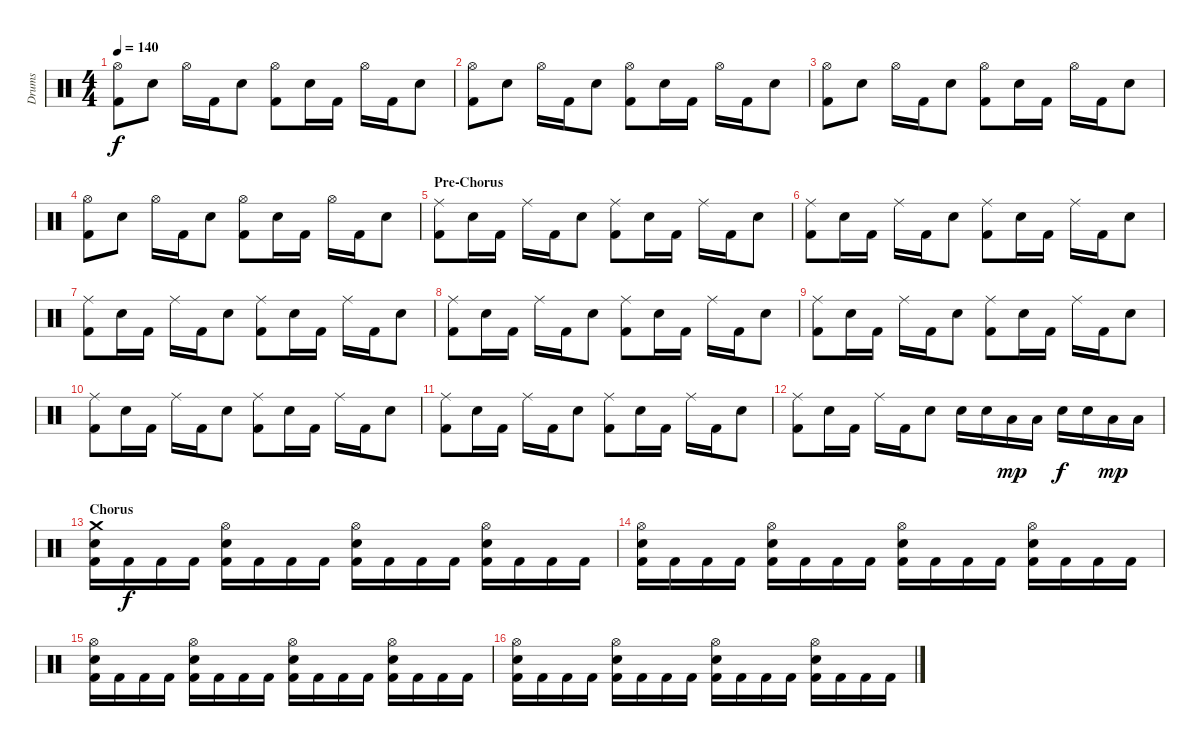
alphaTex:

\track ("Drums" "Drums") {instrument percussion}
\staff {score}
\articulation defaults
\ts (4 4)
\tempo 140
\clef neutral
\ks c
("Hi-Hat (open)" "Kick (hit) 2").8{dy f} "Electric Snare (hit)".8 "Hi-Hat (open)".16 "Kick (hit) 2".16 "Electric Snare (hit)".8 ("Hi-Hat (open)" "Kick (hit) 2").8 "Electric Snare (hit)".16 "Kick (hit) 2".16 "Hi-Hat (open)".16 "Kick (hit) 2".16 "Electric Snare (hit)".8 |
("Hi-Hat (open)" "Kick (hit) 2").8 "Electric Snare (hit)".8 "Hi-Hat (open)".16 "Kick (hit) 2".16 "Electric Snare (hit)".8 ("Hi-Hat (open)" "Kick (hit) 2").8 "Electric Snare (hit)".16 "Kick (hit) 2".16 "Hi-Hat (open)".16 "Kick (hit) 2".16 "Electric Snare (hit)".8 |
("Hi-Hat (open)" "Kick (hit) 2").8 "Electric Snare (hit)".8 "Hi-Hat (open)".16 "Kick (hit) 2".16 "Electric Snare (hit)".8 ("Hi-Hat (open)" "Kick (hit) 2").8 "Electric Snare (hit)".16 "Kick (hit) 2".16 "Hi-Hat (open)".16 "Kick (hit) 2".16 "Electric Snare (hit)".8 |
("Hi-Hat (open)" "Kick (hit) 2").8 "Electric Snare (hit)".8 "Hi-Hat (open)".16 "Kick (hit) 2".16 "Electric Snare (hit)".8 ("Hi-Hat (open)" "Kick (hit) 2").8 "Electric Snare (hit)".16 "Kick (hit) 2".16 "Hi-Hat (open)".16 "Kick (hit) 2".16 "Electric Snare (hit)".8 |
\section ("" "Pre-Chorus")
("Ride (middle)" "Kick (hit) 2").8 "Electric Snare (hit)".16 "Kick (hit) 2".16 "Ride (middle)".16 "Kick (hit) 2".16 "Electric Snare (hit)".8 ("Ride (middle)" "Kick (hit) 2").8 "Electric Snare (hit)".16 "Kick (hit) 2".16 "Ride (middle)".16 "Kick (hit) 2".16 "Electric Snare (hit)".8 |
("Ride (middle)" "Kick (hit) 2").8 "Electric Snare (hit)".16 "Kick (hit) 2".16 "Ride (middle)".16 "Kick (hit) 2".16 "Electric Snare (hit)".8 ("Ride (middle)" "Kick (hit) 2").8 "Electric Snare (hit)".16 "Kick (hit) 2".16 "Ride (middle)".16 "Kick (hit) 2".16 "Electric Snare (hit)".8 |
("Ride (middle)" "Kick (hit) 2").8 "Electric Snare (hit)".16 "Kick (hit) 2".16 "Ride (middle)".16 "Kick (hit) 2".16 "Electric Snare (hit)".8 ("Ride (middle)" "Kick (hit) 2").8 "Electric Snare (hit)".16 "Kick (hit) 2".16 "Ride (middle)".16 "Kick (hit) 2".16 "Electric Snare (hit)".8 |
("Ride (middle)" "Kick (hit) 2").8 "Electric Snare (hit)".16 "Kick (hit) 2".16 "Ride (middle)".16 "Kick (hit) 2".16 "Electric Snare (hit)".8 ("Ride (middle)" "Kick (hit) 2").8 "Electric Snare (hit)".16 "Kick (hit) 2".16 "Ride (middle)".16 "Kick (hit) 2".16 "Electric Snare (hit)".8 |
("Ride (middle)" "Kick (hit) 2").8 "Electric Snare (hit)".16 "Kick (hit) 2".16 "Ride (middle)".16 "Kick (hit) 2".16 "Electric Snare (hit)".8 ("Ride (middle)" "Kick (hit) 2").8 "Electric Snare (hit)".16 "Kick (hit) 2".16 "Ride (middle)".16 "Kick (hit) 2".16 "Electric Snare (hit)".8 |
("Ride (middle)" "Kick (hit) 2").8 "Electric Snare (hit)".16 "Kick (hit) 2".16 "Ride (middle)".16 "Kick (hit) 2".16 "Electric Snare (hit)".8 ("Ride (middle)" "Kick (hit) 2").8 "Electric Snare (hit)".16 "Kick (hit) 2".16 "Ride (middle)".16 "Kick (hit) 2".16 "Electric Snare (hit)".8 |
("Ride (middle)" "Kick (hit) 2").8 "Electric Snare (hit)".16 "Kick (hit) 2".16 "Ride (middle)".16 "Kick (hit) 2".16 "Electric Snare (hit)".8 ("Ride (middle)" "Kick (hit) 2").8 "Electric Snare (hit)".16 "Kick (hit) 2".16 "Ride (middle)".16 "Kick (hit) 2".16 "Electric Snare (hit)".8 |
("Ride (middle)" "Kick (hit) 2").8 "Electric Snare (hit)".16 "Kick (hit) 2".16 "Ride (middle)".16 "Kick (hit) 2".16 "Electric Snare (hit)".8 "Electric Snare (hit)".16 "Electric Snare (hit)".16 "Low Floor Tom (hit)".16{dy mp} "Low Floor Tom (hit)".16 "Electric Snare (hit)".16{dy f} "Electric Snare (hit)".16 "Low Floor Tom (hit)".16{dy mp} "Low Floor Tom (hit)".16 |
\section ("" "Chorus")
("Crash medium (hit)" "Electric Snare (hit)" "Kick (hit) 2").16 "Kick (hit) 2".16{dy f} "Kick (hit) 2".16 "Kick (hit) 2".16 ("Hi-Hat (open)" "Electric Snare (hit)" "Kick (hit) 2").16 "Kick (hit) 2".16 "Kick (hit) 2".16 "Kick (hit) 2".16 ("Hi-Hat (open)" "Electric Snare (hit)" "Kick (hit) 2").16 "Kick (hit) 2".16 "Kick (hit) 2".16 "Kick (hit) 2".16 ("Hi-Hat (open)" "Electric Snare (hit)" "Kick (hit) 2").16 "Kick (hit) 2".16 "Kick (hit) 2".16 "Kick (hit) 2".16 |
("Hi-Hat (open)" "Electric Snare (hit)" "Kick (hit) 2").16 "Kick (hit) 2".16 "Kick (hit) 2".16 "Kick (hit) 2".16 ("Hi-Hat (open)" "Electric Snare (hit)" "Kick (hit) 2").16 "Kick (hit) 2".16 "Kick (hit) 2".16 "Kick (hit) 2".16 ("Hi-Hat (open)" "Electric Snare (hit)" "Kick (hit) 2").16 "Kick (hit) 2".16 "Kick (hit) 2".16 "Kick (hit) 2".16 ("Hi-Hat (open)" "Electric Snare (hit)" "Kick (hit) 2").16 "Kick (hit) 2".16 "Kick (hit) 2".16 "Kick (hit) 2".16 |
("Hi-Hat (open)" "Electric Snare (hit)" "Kick (hit) 2").16 "Kick (hit) 2".16 "Kick (hit) 2".16 "Kick (hit) 2".16 ("Hi-Hat (open)" "Electric Snare (hit)" "Kick (hit) 2").16 "Kick (hit) 2".16 "Kick (hit) 2".16 "Kick (hit) 2".16 ("Hi-Hat (open)" "Electric Snare (hit)" "Kick (hit) 2").16 "Kick (hit) 2".16 "Kick (hit) 2".16 "Kick (hit) 2".16 ("Hi-Hat (open)" "Electric Snare (hit)" "Kick (hit) 2").16 "Kick (hit) 2".16 "Kick (hit) 2".16 "Kick (hit) 2".16 |
("Hi-Hat (open)" "Electric Snare (hit)" "Kick (hit) 2").16 "Kick (hit) 2".16 "Kick (hit) 2".16 "Kick (hit) 2".16 ("Hi-Hat (open)" "Electric Snare (hit)" "Kick (hit) 2").16 "Kick (hit) 2".16 "Kick (hit) 2".16 "Kick (hit) 2".16 ("Hi-Hat (open)" "Electric Snare (hit)" "Kick (hit) 2").16 "Kick (hit) 2".16 "Kick (hit) 2".16 "Kick (hit) 2".16 ("Hi-Hat (open)" "Electric Snare (hit)" "Kick (hit) 2").16 "Kick (hit) 2".16 "Kick (hit) 2".16 "Kick (hit) 2".16
